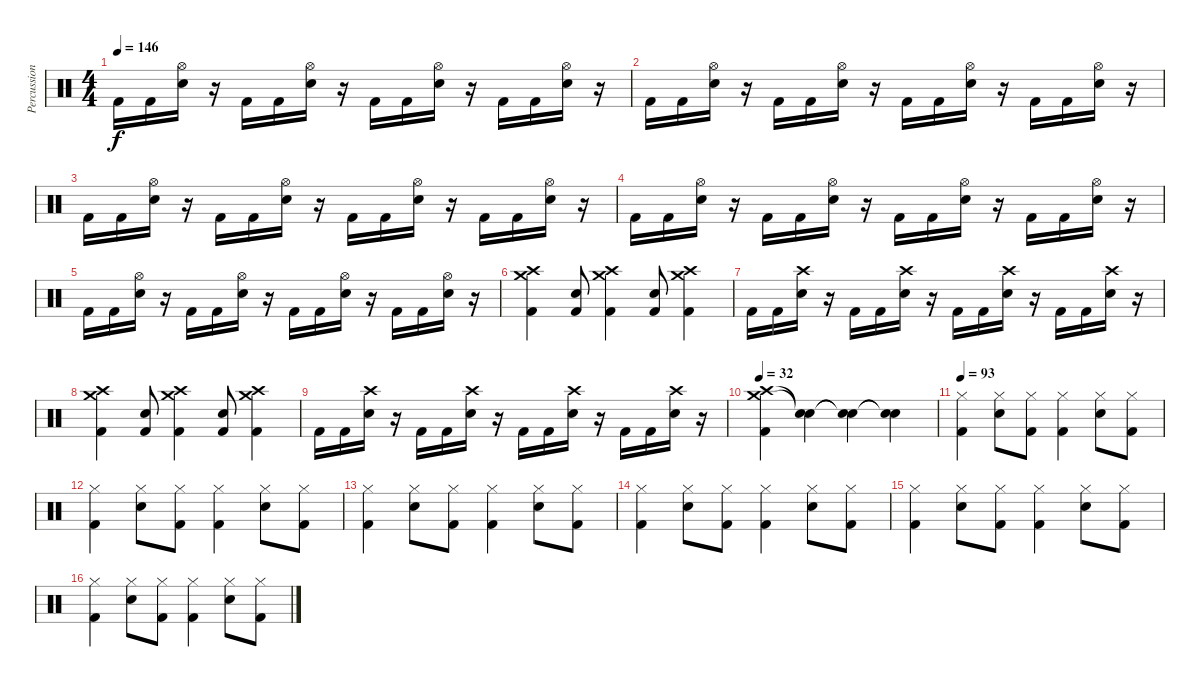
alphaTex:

\track ("Percussion(Dr.Spock)" "Percussion") {instrument percussion}
\staff {score}
\articulation defaults
\ts (4 4)
\tempo 146
\clef neutral
\ks c "Kick (hit) 2".16{dy f} "Kick (hit) 2".16
("Snare (hit) 2" "Hi-Hat (open)").16 r.16 "Kick (hit) 2".16 "Kick (hit) 2".16 ("Snare (hit) 2" "Hi-Hat (open)").16 r.16 "Kick (hit) 2".16 "Kick (hit) 2".16 ("Snare (hit) 2" "Hi-Hat (open)").16 r.16 "Kick (hit) 2".16 "Kick (hit) 2".16 ("Snare (hit) 2" "Hi-Hat (open)").16 r.16 |
"Kick (hit) 2".16 "Kick (hit) 2".16 ("Snare (hit) 2" "Hi-Hat (open)").16 r.16 "Kick (hit) 2".16 "Kick (hit) 2".16 ("Snare (hit) 2" "Hi-Hat (open)").16 r.16 "Kick (hit) 2".16 "Kick (hit) 2".16 ("Snare (hit) 2" "Hi-Hat (open)").16 r.16 "Kick (hit) 2".16 "Kick (hit) 2".16 ("Snare (hit) 2" "Hi-Hat (open)").16 r.16 |
"Kick (hit) 2".16 "Kick (hit) 2".16 ("Snare (hit) 2" "Hi-Hat (open)").16 r.16 "Kick (hit) 2".16 "Kick (hit) 2".16 ("Snare (hit) 2" "Hi-Hat (open)").16 r.16 "Kick (hit) 2".16 "Kick (hit) 2".16 ("Snare (hit) 2" "Hi-Hat (open)").16 r.16 "Kick (hit) 2".16 "Kick (hit) 2".16 ("Snare (hit) 2" "Hi-Hat (open)").16 r.16 |
"Kick (hit) 2".16 "Kick (hit) 2".16 ("Snare (hit) 2" "Hi-Hat (open)").16 r.16 "Kick (hit) 2".16 "Kick (hit) 2".16 ("Snare (hit) 2" "Hi-Hat (open)").16 r.16 "Kick (hit) 2".16 "Kick (hit) 2".16 ("Snare (hit) 2" "Hi-Hat (open)").16 r.16 "Kick (hit) 2".16 "Kick (hit) 2".16 ("Snare (hit) 2" "Hi-Hat (open)").16 r.16 |
"Kick (hit) 2".16 "Kick (hit) 2".16 ("Snare (hit) 2" "Hi-Hat (open)").16 r.16 "Kick (hit) 2".16 "Kick (hit) 2".16 ("Snare (hit) 2" "Hi-Hat (open)").16 r.16 "Kick (hit) 2".16 "Kick (hit) 2".16 ("Snare (hit) 2" "Hi-Hat (open)").16 r.16 "Kick (hit) 2".16 "Kick (hit) 2".16 ("Snare (hit) 2" "Hi-Hat (open)").16 r.16 |
("Crash medium (hit)" "Crash high (hit)" "Kick (hit) 2").4 ("Snare (hit) 2" "Kick (hit) 2").8 ("Crash medium (hit)" "Crash high (hit)" "Kick (hit) 2").4 ("Snare (hit) 2" "Kick (hit) 2").8 ("Crash medium (hit)" "Crash high (hit)" "Kick (hit) 2").4 |
"Kick (hit) 2".16 "Kick (hit) 2".16 ("Snare (hit) 2" "Crash high (hit)").16 r.16 "Kick (hit) 2".16 "Kick (hit) 2".16 ("Snare (hit) 2" "Crash high (hit)").16 r.16 "Kick (hit) 2".16 "Kick (hit) 2".16 ("Snare (hit) 2" "Crash high (hit)").16 r.16 "Kick (hit) 2".16 "Kick (hit) 2".16 ("Snare (hit) 2" "Crash high (hit)").16 r.16 |
("Crash medium (hit)" "Crash high (hit)" "Kick (hit) 2").4 ("Snare (hit) 2" "Kick (hit) 2").8 ("Crash medium (hit)" "Crash high (hit)" "Kick (hit) 2").4 ("Snare (hit) 2" "Kick (hit) 2").8 ("Crash medium (hit)" "Crash high (hit)" "Kick (hit) 2").4 |
"Kick (hit) 2".16 "Kick (hit) 2".16 ("Snare (hit) 2" "Crash high (hit)").16 r.16 "Kick (hit) 2".16 "Kick (hit) 2".16 ("Snare (hit) 2" "Crash high (hit)").16 r.16 "Kick (hit) 2".16 "Kick (hit) 2".16 ("Snare (hit) 2" "Crash high (hit)").16 r.16 "Kick (hit) 2".16 "Kick (hit) 2".16 ("Snare (hit) 2" "Crash high (hit)").16 r.16 |
\tempo 32
("Crash medium (hit)" "Crash high (hit)" "Kick (hit) 2").4 ("Snare (hit)"{t} "Snare (hit)"{t}).4 ("Snare (hit)"{t} "Snare (hit)"{t}).4 ("Snare (hit)"{t} "Snare (hit)"{t}).4 |
\tempo 93
("Hi-Hat (closed)" "Kick (hit) 2").4 ("Hi-Hat (closed)" "Snare (hit) 2").8 ("Hi-Hat (closed)" "Kick (hit) 2").8 ("Hi-Hat (closed)" "Kick (hit) 2").4 ("Hi-Hat (closed)" "Snare (hit) 2").8 ("Hi-Hat (closed)" "Kick (hit) 2").8 |
("Hi-Hat (closed)" "Kick (hit) 2").4 ("Hi-Hat (closed)" "Snare (hit) 2").8 ("Hi-Hat (closed)" "Kick (hit) 2").8 ("Hi-Hat (closed)" "Kick (hit) 2").4 ("Hi-Hat (closed)" "Snare (hit) 2").8 ("Hi-Hat (closed)" "Kick (hit) 2").8 |
("Hi-Hat (closed)" "Kick (hit) 2").4 ("Hi-Hat (closed)" "Snare (hit) 2").8 ("Hi-Hat (closed)" "Kick (hit) 2").8 ("Hi-Hat (closed)" "Kick (hit) 2").4 ("Hi-Hat (closed)" "Snare (hit) 2").8 ("Hi-Hat (closed)" "Kick (hit) 2").8 |
("Hi-Hat (closed)" "Kick (hit) 2").4 ("Hi-Hat (closed)" "Snare (hit) 2").8 ("Hi-Hat (closed)" "Kick (hit) 2").8 ("Hi-Hat (closed)" "Kick (hit) 2").4 ("Hi-Hat (closed)" "Snare (hit) 2").8 ("Hi-Hat (closed)" "Kick (hit) 2").8 |
("Hi-Hat (closed)" "Kick (hit) 2").4 ("Hi-Hat (closed)" "Snare (hit) 2").8 ("Hi-Hat (closed)" "Kick (hit) 2").8 ("Hi-Hat (closed)" "Kick (hit) 2").4 ("Hi-Hat (closed)" "Snare (hit) 2").8 ("Hi-Hat (closed)" "Kick (hit) 2").8 |
("Hi-Hat (closed)" "Kick (hit) 2").4 ("Hi-Hat (closed)" "Snare (hit) 2").8 ("Hi-Hat (closed)" "Kick (hit) 2").8 ("Hi-Hat (closed)" "Kick (hit) 2").4 ("Hi-Hat (closed)" "Snare (hit) 2").8 ("Hi-Hat (closed)" "Kick (hit) 2").8
